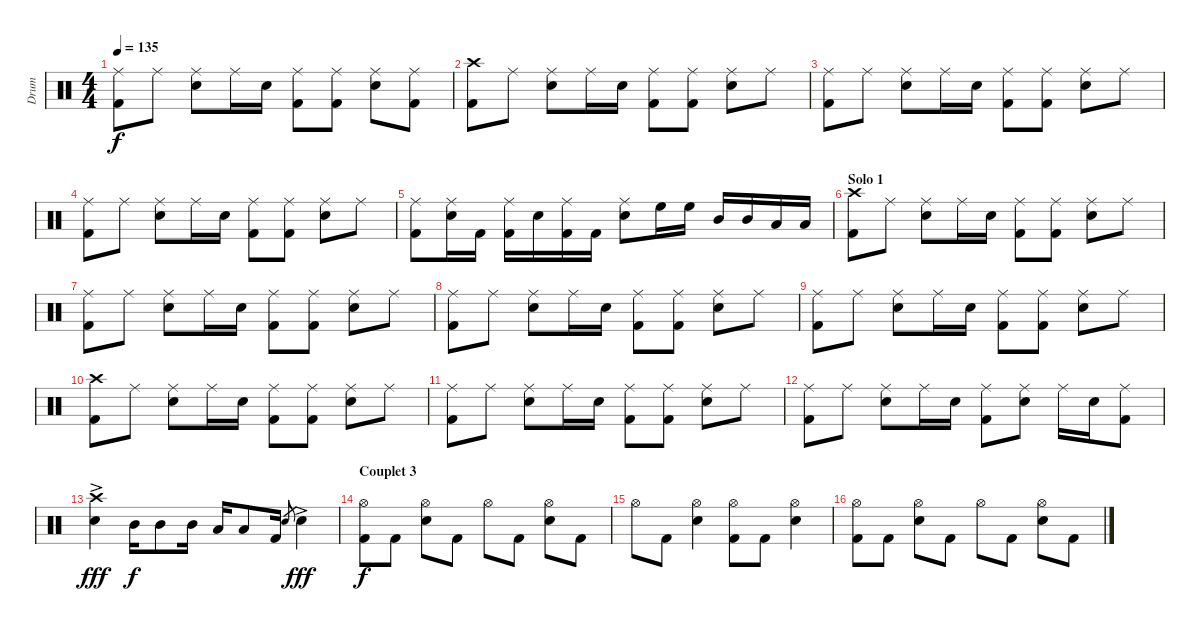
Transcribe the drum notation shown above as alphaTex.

\track ("Drum" "Drum") {instrument percussion}
\staff {score}
\articulation defaults
\ts (4 4)
\tempo 135
\clef neutral
\ks c
("Ride (middle)" "Kick (hit) 2").8{dy f} "Ride (middle)".8 ("Ride (middle)" "Snare (hit) 2").8 "Ride (middle)".16 "Snare (hit) 2".16 ("Ride (middle)" "Kick (hit) 2").8 ("Ride (middle)" "Kick (hit) 2").8 ("Ride (middle)" "Snare (hit) 2").8 ("Ride (middle)" "Kick (hit) 2").8 |
("Crash high (hit)" "Kick (hit) 2").8 "Ride (middle)".8 ("Ride (middle)" "Snare (hit) 2").8 "Ride (middle)".16 "Snare (hit) 2".16 ("Ride (middle)" "Kick (hit) 2").8 ("Ride (middle)" "Kick (hit) 2").8 ("Ride (middle)" "Snare (hit) 2").8 "Ride (middle)".8 |
("Ride (middle)" "Kick (hit) 2").8 "Ride (middle)".8 ("Ride (middle)" "Snare (hit) 2").8 "Ride (middle)".16 "Snare (hit) 2".16 ("Ride (middle)" "Kick (hit) 2").8 ("Ride (middle)" "Kick (hit) 2").8 ("Ride (middle)" "Snare (hit) 2").8 "Ride (middle)".8 |
("Ride (middle)" "Kick (hit) 2").8 "Ride (middle)".8 ("Ride (middle)" "Snare (hit) 2").8 "Ride (middle)".16 "Snare (hit) 2".16 ("Ride (middle)" "Kick (hit) 2").8 ("Ride (middle)" "Kick (hit) 2").8 ("Ride (middle)" "Snare (hit) 2").8 "Ride (middle)".8 |
("Ride (middle)" "Kick (hit) 2").8 ("Ride (middle)" "Snare (hit) 2").16 "Kick (hit) 2".16 ("Ride (middle)" "Kick (hit) 2").16 "Snare (hit) 2".16 ("Ride (middle)" "Kick (hit) 2").16 "Kick (hit) 2".16 ("Ride (middle)" "Snare (hit) 2").8 "High Floor Tom (hit)".16 "High Floor Tom (hit)".16 "Mid Tom (hit)".16 "Mid Tom (hit)".16 "Low Tom (hit)".16 "Low Tom (hit)".16 |
\section ("" "Solo 1")
("Crash high (hit)" "Kick (hit) 2").8 "Ride (middle)".8 ("Ride (middle)" "Snare (hit) 2").8 "Ride (middle)".16 "Snare (hit) 2".16 ("Ride (middle)" "Kick (hit) 2").8 ("Ride (middle)" "Kick (hit) 2").8 ("Ride (middle)" "Snare (hit) 2").8 "Ride (middle)".8 |
("Ride (middle)" "Kick (hit) 2").8 "Ride (middle)".8 ("Ride (middle)" "Snare (hit) 2").8 "Ride (middle)".16 "Snare (hit) 2".16 ("Ride (middle)" "Kick (hit) 2").8 ("Ride (middle)" "Kick (hit) 2").8 ("Ride (middle)" "Snare (hit) 2").8 "Ride (middle)".8 |
("Ride (middle)" "Kick (hit) 2").8 "Ride (middle)".8 ("Ride (middle)" "Snare (hit) 2").8 "Ride (middle)".16 "Snare (hit) 2".16 ("Ride (middle)" "Kick (hit) 2").8 ("Ride (middle)" "Kick (hit) 2").8 ("Ride (middle)" "Snare (hit) 2").8 "Ride (middle)".8 |
("Ride (middle)" "Kick (hit) 2").8 "Ride (middle)".8 ("Ride (middle)" "Snare (hit) 2").8 "Ride (middle)".16 "Snare (hit) 2".16 ("Ride (middle)" "Kick (hit) 2").8 ("Ride (middle)" "Kick (hit) 2").8 ("Ride (middle)" "Snare (hit) 2").8 "Ride (middle)".8 |
("Crash high (hit)" "Kick (hit) 2").8 "Ride (middle)".8 ("Ride (middle)" "Snare (hit) 2").8 "Ride (middle)".16 "Snare (hit) 2".16 ("Ride (middle)" "Kick (hit) 2").8 ("Ride (middle)" "Kick (hit) 2").8 ("Ride (middle)" "Snare (hit) 2").8 "Ride (middle)".8 |
("Ride (middle)" "Kick (hit) 2").8 "Ride (middle)".8 ("Ride (middle)" "Snare (hit) 2").8 "Ride (middle)".16 "Snare (hit) 2".16 ("Ride (middle)" "Kick (hit) 2").8 ("Ride (middle)" "Kick (hit) 2").8 ("Ride (middle)" "Snare (hit) 2").8 "Ride (middle)".8 |
("Ride (middle)" "Kick (hit) 2").8 "Ride (middle)".8 ("Ride (middle)" "Snare (hit) 2").8 "Ride (middle)".16 "Snare (hit) 2".16 ("Ride (middle)" "Kick (hit) 2").8 ("Ride (middle)" "Snare (hit) 2").8 "Ride (middle)".16 "Snare (hit) 2".16 ("Ride (middle)" "Kick (hit) 2").8 |
("Crash high (hit)" "Snare (hit) 2"{ac}).4{dy fff} "Mid Tom (hit)".16{dy f} "Mid Tom (hit)".8 "Mid Tom (hit)".16 "Low Tom (hit)".16 "Low Tom (hit)".8 "Kick (hit) 2".16 "Snare (hit) 2".8{gr} "Snare (hit) 2"{ac}.4{dy fff} |
\section ("" "Couplet 3")
("Hi-Hat (open)" "Kick (hit) 2").8{dy f} "Kick (hit) 2".8 ("Hi-Hat (open)" "Snare (hit) 2").8 "Kick (hit) 2".8 "Hi-Hat (open)".8 "Kick (hit) 2".8 ("Hi-Hat (open)" "Snare (hit) 2").8 "Kick (hit) 2".8 |
"Hi-Hat (open)".8 "Kick (hit) 2".8 ("Hi-Hat (open)" "Snare (hit) 2").4 ("Hi-Hat (open)" "Kick (hit) 2").8 "Kick (hit) 2".8 ("Hi-Hat (open)" "Snare (hit) 2").4 |
("Hi-Hat (open)" "Kick (hit) 2").8 "Kick (hit) 2".8 ("Hi-Hat (open)" "Snare (hit) 2").8 "Kick (hit) 2".8 "Hi-Hat (open)".8 "Kick (hit) 2".8 ("Hi-Hat (open)" "Snare (hit) 2").8 "Kick (hit) 2".8
